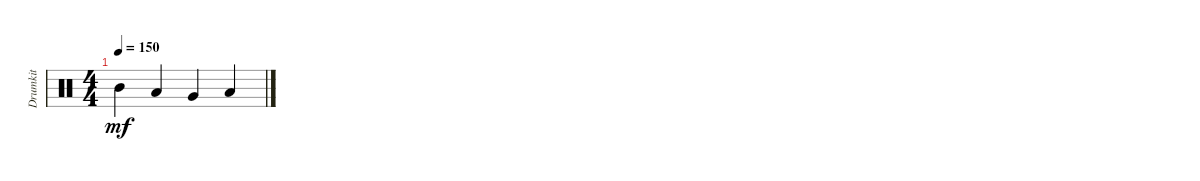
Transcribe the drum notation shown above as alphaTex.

\track ("Drumkit" "Drumkit") {instrument percussion}
\staff {score}
\articulation defaults
\ts (4 4)
\tempo 150
\clef neutral
\ks c "Mid Tom (hit)".4{dy mf} "Low Tom (hit)".4 "Very Low Tom (hit)".4 "Low Tom (hit)".4
